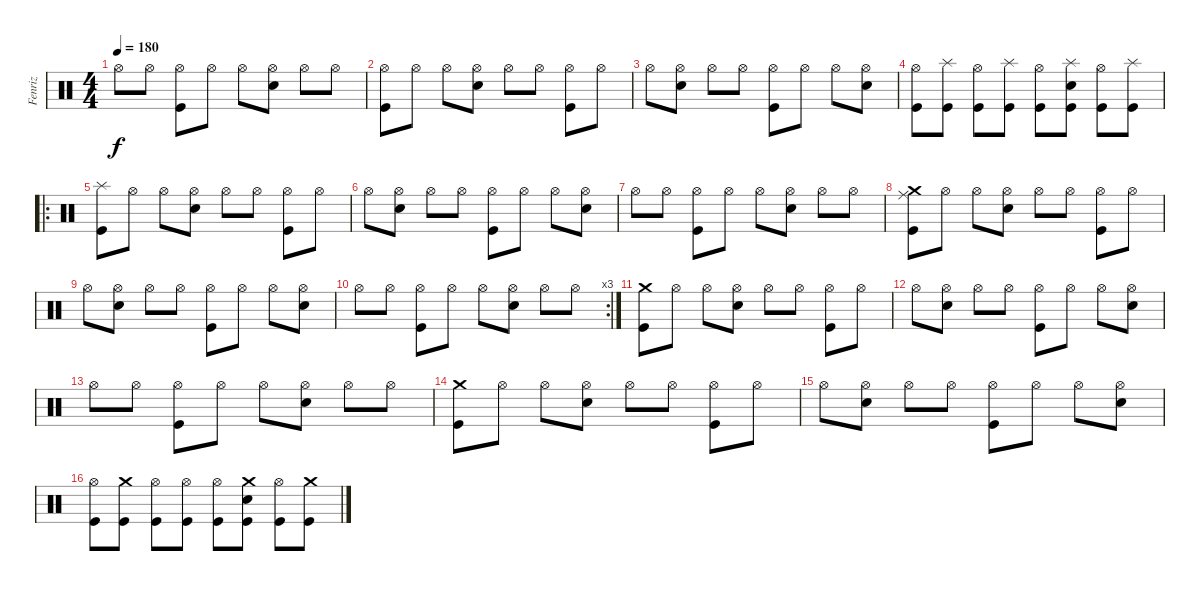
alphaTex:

\track ("Fenriz" "Fenriz") {instrument percussion}
\staff {score}
\articulation defaults
\ts (4 4)
\tempo 180
\clef neutral
\ks c "Hi-Hat (open)".8{dy f} "Hi-Hat (open)".8
("Hi-Hat (open)" "Kick (hit)").8 "Hi-Hat (open)".8 "Hi-Hat (open)".8 ("Hi-Hat (open)" "Snare (hit) 2").8 "Hi-Hat (open)".8 "Hi-Hat (open)".8 |
("Hi-Hat (open)" "Kick (hit)").8 "Hi-Hat (open)".8 "Hi-Hat (open)".8 ("Hi-Hat (open)" "Snare (hit) 2").8 "Hi-Hat (open)".8 "Hi-Hat (open)".8 ("Hi-Hat (open)" "Kick (hit)").8 "Hi-Hat (open)".8 |
"Hi-Hat (open)".8 ("Hi-Hat (open)" "Snare (hit) 2").8 "Hi-Hat (open)".8 "Hi-Hat (open)".8 ("Hi-Hat (open)" "Kick (hit)").8 "Hi-Hat (open)".8 "Hi-Hat (open)".8 ("Hi-Hat (open)" "Snare (hit) 2").8 |
("Hi-Hat (open)" "Kick (hit)").8 ("Splash (hit)" "Kick (hit)").8 ("Hi-Hat (open)" "Kick (hit)").8 ("Splash (hit)" "Kick (hit)").8 ("Hi-Hat (open)" "Kick (hit)").8 ("Splash (hit)" "Snare (hit) 2" "Kick (hit)").8 ("Hi-Hat (open)" "Kick (hit)").8 ("Splash (hit)" "Kick (hit)").8 |
\ro
("Splash (hit)" "Kick (hit)").8 "Hi-Hat (open)".8 "Hi-Hat (open)".8 ("Hi-Hat (open)" "Snare (hit) 2").8 "Hi-Hat (open)".8 "Hi-Hat (open)".8 ("Hi-Hat (open)" "Kick (hit)").8 "Hi-Hat (open)".8 |
"Hi-Hat (open)".8 ("Hi-Hat (open)" "Snare (hit) 2").8 "Hi-Hat (open)".8 "Hi-Hat (open)".8 ("Hi-Hat (open)" "Kick (hit)").8 "Hi-Hat (open)".8 "Hi-Hat (open)".8 ("Hi-Hat (open)" "Snare (hit) 2").8 |
"Hi-Hat (open)".8 "Hi-Hat (open)".8 ("Hi-Hat (open)" "Kick (hit)").8 "Hi-Hat (open)".8 "Hi-Hat (open)".8 ("Hi-Hat (open)" "Snare (hit) 2").8 "Hi-Hat (open)".8 "Hi-Hat (open)".8 |
("Crash medium (hit)" "Ride (middle)" "Kick (hit)").8 "Hi-Hat (open)".8 "Hi-Hat (open)".8 ("Hi-Hat (open)" "Snare (hit) 2").8 "Hi-Hat (open)".8 "Hi-Hat (open)".8 ("Hi-Hat (open)" "Kick (hit)").8 "Hi-Hat (open)".8 |
"Hi-Hat (open)".8 ("Hi-Hat (open)" "Snare (hit) 2").8 "Hi-Hat (open)".8 "Hi-Hat (open)".8 ("Hi-Hat (open)" "Kick (hit)").8 "Hi-Hat (open)".8 "Hi-Hat (open)".8 ("Hi-Hat (open)" "Snare (hit) 2").8 |
\rc 3 "Hi-Hat (open)".8 "Hi-Hat (open)".8
("Hi-Hat (open)" "Kick (hit)").8 "Hi-Hat (open)".8 "Hi-Hat (open)".8 ("Hi-Hat (open)" "Snare (hit) 2").8 "Hi-Hat (open)".8 "Hi-Hat (open)".8 |
("Crash medium (hit)" "Kick (hit)").8 "Hi-Hat (open)".8 "Hi-Hat (open)".8 ("Hi-Hat (open)" "Snare (hit) 2").8 "Hi-Hat (open)".8 "Hi-Hat (open)".8 ("Hi-Hat (open)" "Kick (hit)").8 "Hi-Hat (open)".8 |
"Hi-Hat (open)".8 ("Hi-Hat (open)" "Snare (hit) 2").8 "Hi-Hat (open)".8 "Hi-Hat (open)".8 ("Hi-Hat (open)" "Kick (hit)").8 "Hi-Hat (open)".8 "Hi-Hat (open)".8 ("Hi-Hat (open)" "Snare (hit) 2").8 |
"Hi-Hat (open)".8 "Hi-Hat (open)".8 ("Hi-Hat (open)" "Kick (hit)").8 "Hi-Hat (open)".8 "Hi-Hat (open)".8 ("Hi-Hat (open)" "Snare (hit) 2").8 "Hi-Hat (open)".8 "Hi-Hat (open)".8 |
("Crash medium (hit)" "Kick (hit)").8 "Hi-Hat (open)".8 "Hi-Hat (open)".8 ("Hi-Hat (open)" "Snare (hit) 2").8 "Hi-Hat (open)".8 "Hi-Hat (open)".8 ("Hi-Hat (open)" "Kick (hit)").8 "Hi-Hat (open)".8 |
"Hi-Hat (open)".8 ("Hi-Hat (open)" "Snare (hit) 2").8 "Hi-Hat (open)".8 "Hi-Hat (open)".8 ("Hi-Hat (open)" "Kick (hit)").8 "Hi-Hat (open)".8 "Hi-Hat (open)".8 ("Hi-Hat (open)" "Snare (hit) 2").8 |
("Hi-Hat (open)" "Kick (hit)").8 ("Crash medium (hit)" "Kick (hit)").8 ("Hi-Hat (open)" "Kick (hit)").8 ("Hi-Hat (open)" "Kick (hit)").8 ("Hi-Hat (open)" "Kick (hit)").8 ("Crash medium (hit)" "Snare (hit) 2" "Kick (hit)").8 ("Hi-Hat (open)" "Kick (hit)").8 ("Crash medium (hit)" "Kick (hit)").8
